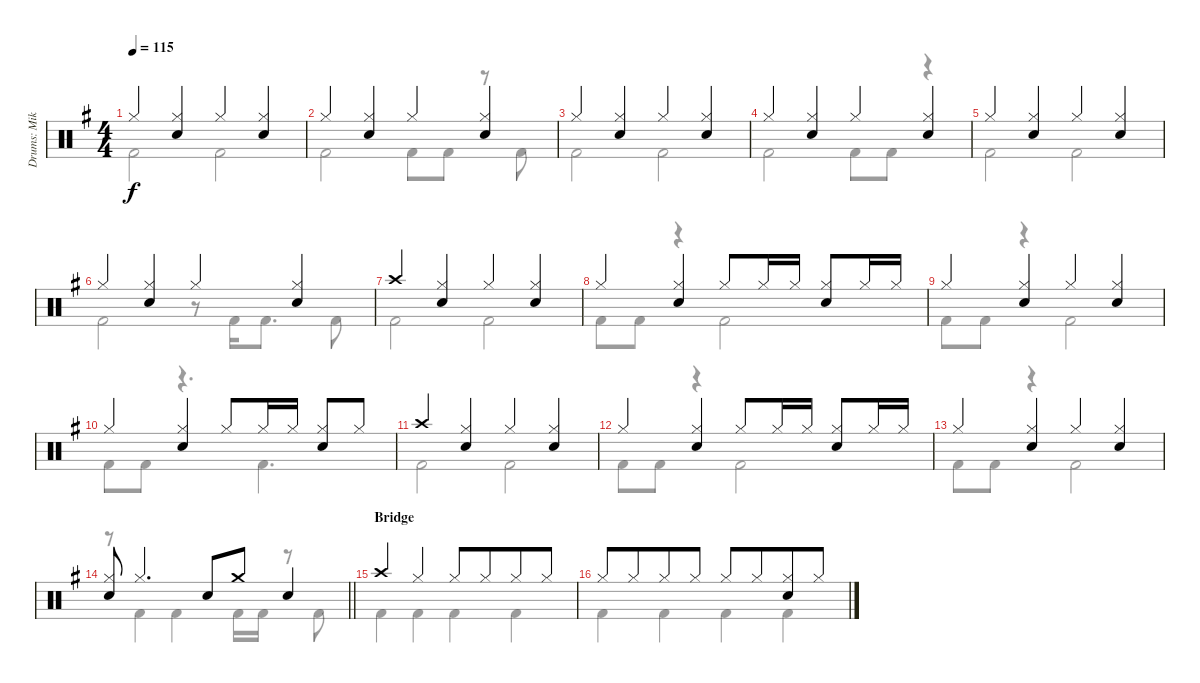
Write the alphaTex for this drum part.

\track ("Drums: Mikkey" "Drums: Mik") {instrument percussion}
\staff {score}
\articulation defaults
\voice
\ts (4 4)
\tempo 115
\clef neutral
\ks g "Hi-Hat (closed)".4{dy f}
("Hi-Hat (closed)" "Snare (hit) 2").4 "Hi-Hat (closed)".4 ("Hi-Hat (closed)" "Snare (hit) 2").4 |
"Hi-Hat (closed)".4 ("Hi-Hat (closed)" "Snare (hit) 2").4 "Hi-Hat (closed)".4 ("Hi-Hat (closed)" "Snare (hit) 2").4 |
"Hi-Hat (closed)".4 ("Hi-Hat (closed)" "Snare (hit) 2").4 "Hi-Hat (closed)".4 ("Hi-Hat (closed)" "Snare (hit) 2").4 |
"Hi-Hat (closed)".4 ("Hi-Hat (closed)" "Snare (hit) 2").4 "Hi-Hat (closed)".4 ("Hi-Hat (closed)" "Snare (hit) 2").4 |
"Hi-Hat (closed)".4 ("Hi-Hat (closed)" "Snare (hit) 2").4 "Hi-Hat (closed)".4 ("Hi-Hat (closed)" "Snare (hit) 2").4 |
"Hi-Hat (closed)".4 ("Hi-Hat (closed)" "Snare (hit) 2").4 "Hi-Hat (closed)".4 ("Hi-Hat (closed)" "Snare (hit) 2").4 |
"Crash high (hit)".4 ("Hi-Hat (closed)" "Snare (hit) 2").4 "Hi-Hat (closed)".4 ("Hi-Hat (closed)" "Snare (hit) 2").4 |
"Hi-Hat (closed)".4 ("Hi-Hat (closed)" "Snare (hit) 2").4 "Hi-Hat (closed)".8 "Hi-Hat (closed)".16 "Hi-Hat (closed)".16 ("Hi-Hat (closed)" "Snare (hit) 2").8 "Hi-Hat (closed)".16 "Hi-Hat (closed)".16 |
"Hi-Hat (closed)".4 ("Hi-Hat (closed)" "Snare (hit) 2").4 "Hi-Hat (closed)".4 ("Hi-Hat (closed)" "Snare (hit) 2").4 |
"Hi-Hat (closed)".4 ("Hi-Hat (closed)" "Snare (hit) 2").4 "Hi-Hat (closed)".8 "Hi-Hat (closed)".16 "Hi-Hat (closed)".16 ("Hi-Hat (closed)" "Snare (hit) 2").8 "Hi-Hat (closed)".8 |
"Crash high (hit)".4 ("Hi-Hat (closed)" "Snare (hit) 2").4 "Hi-Hat (closed)".4 ("Hi-Hat (closed)" "Snare (hit) 2").4 |
"Hi-Hat (closed)".4 ("Hi-Hat (closed)" "Snare (hit) 2").4 "Hi-Hat (closed)".8 "Hi-Hat (closed)".16 "Hi-Hat (closed)".16 ("Hi-Hat (closed)" "Snare (hit) 2").8 "Hi-Hat (closed)".16 "Hi-Hat (closed)".16 |
"Hi-Hat (closed)".4 ("Hi-Hat (closed)" "Snare (hit) 2").4 "Hi-Hat (closed)".4 ("Hi-Hat (closed)" "Snare (hit) 2").4 |
\barLineRight lightlight
("Hi-Hat (closed)" "Snare (hit) 2").8 "Hi-Hat (closed)".4{d} "Snare (hit) 2".8 "Crash medium (hit)".8 "Snare (hit) 2".4 |
\section ("" "Bridge")
"Crash high (hit)".4 "Hi-Hat (closed)".4 "Hi-Hat (closed)".8 "Hi-Hat (closed)".8{beam merge} "Hi-Hat (closed)".8 "Hi-Hat (closed)".8 |
"Hi-Hat (closed)".8 "Hi-Hat (closed)".8{beam merge} "Hi-Hat (closed)".8 "Hi-Hat (closed)".8 "Hi-Hat (closed)".8 "Hi-Hat (closed)".8{beam merge} ("Hi-Hat (closed)" "Snare (hit) 2").8 "Hi-Hat (closed)".8
\voice
\clef neutral
\ottava regular
\simile none
\ks g "Kick (hit) 2".2{dy f} "Kick (hit) 2".2
|
"Kick (hit) 2".2 "Kick (hit) 2".8 "Kick (hit) 2".8 r.8 "Kick (hit) 2".8 |
"Kick (hit) 2".2 "Kick (hit) 2".2 |
"Kick (hit) 2".2 "Kick (hit) 2".8 "Kick (hit) 2".8 r.4 |
"Kick (hit) 2".2 "Kick (hit) 2".2 |
"Kick (hit) 2".2 r.8 "Kick (hit) 2".16 "Kick (hit) 2".8{d} "Kick (hit) 2".8 |
"Kick (hit) 2".2 "Kick (hit) 2".2 |
"Kick (hit) 2".8 "Kick (hit) 2".8 r.4 "Kick (hit) 2".2 |
"Kick (hit) 2".8 "Kick (hit) 2".8 r.4 "Kick (hit) 2".2 |
"Kick (hit) 2".8 "Kick (hit) 2".8 r.4{d} "Kick (hit) 2".4{d} |
"Kick (hit) 2".2 "Kick (hit) 2".2 |
"Kick (hit) 2".8 "Kick (hit) 2".8 r.4 "Kick (hit) 2".2 |
"Kick (hit) 2".8 "Kick (hit) 2".8 r.4 "Kick (hit) 2".2 |
\barLineRight lightlight
r.8 "Kick (hit) 2".4 "Kick (hit) 2".4 "Kick (hit) 2".16 "Kick (hit) 2".16 r.8 "Kick (hit) 2".8 |
"Kick (hit) 2".4 "Kick (hit) 2".4 "Kick (hit) 2".4 "Kick (hit) 2".4 |
"Kick (hit) 2".4 "Kick (hit) 2".4 "Kick (hit) 2".4 "Kick (hit) 2".4
